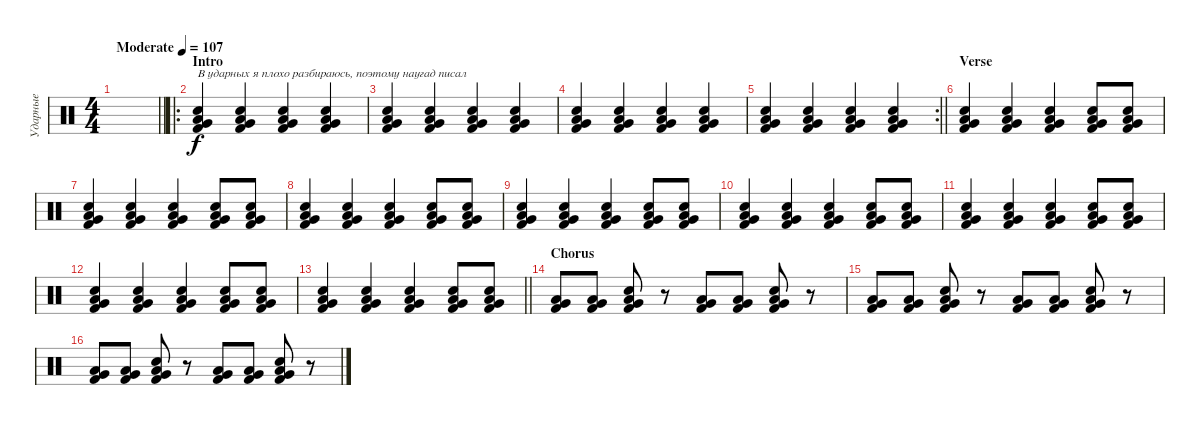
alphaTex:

\track ("Ударные" "Ударные") {instrument percussion}
\staff {score}
\articulation defaults
\ts (4 4)
\tempo (107 "Moderate")
\clef neutral
\barLineRight lightlight
\ks c
|
\ro
\section ("" "Intro")
("Snare (hit) 2" "Low Tom (hit)" "Very Low Tom (hit)" "Kick (hit) 2").4{txt "В ударных я плохо разбираюсь, поэтому наугад писал"} ("Snare (hit) 2" "Low Tom (hit)" "Very Low Tom (hit)" "Kick (hit) 2").4 ("Snare (hit) 2" "Low Tom (hit)" "Very Low Tom (hit)" "Kick (hit) 2").4 ("Snare (hit) 2" "Low Tom (hit)" "Very Low Tom (hit)" "Kick (hit) 2").4 |
("Snare (hit) 2" "Low Tom (hit)" "Very Low Tom (hit)" "Kick (hit) 2").4 ("Snare (hit) 2" "Low Tom (hit)" "Very Low Tom (hit)" "Kick (hit) 2").4 ("Snare (hit) 2" "Low Tom (hit)" "Very Low Tom (hit)" "Kick (hit) 2").4 ("Snare (hit) 2" "Low Tom (hit)" "Very Low Tom (hit)" "Kick (hit) 2").4 |
("Snare (hit) 2" "Low Tom (hit)" "Very Low Tom (hit)" "Kick (hit) 2").4 ("Snare (hit) 2" "Low Tom (hit)" "Very Low Tom (hit)" "Kick (hit) 2").4 ("Snare (hit) 2" "Low Tom (hit)" "Very Low Tom (hit)" "Kick (hit) 2").4 ("Snare (hit) 2" "Low Tom (hit)" "Very Low Tom (hit)" "Kick (hit) 2").4 |
\rc 2
\barLineRight lightlight
("Snare (hit) 2" "Low Tom (hit)" "Very Low Tom (hit)" "Kick (hit) 2").4 ("Snare (hit) 2" "Low Tom (hit)" "Very Low Tom (hit)" "Kick (hit) 2").4 ("Snare (hit) 2" "Low Tom (hit)" "Very Low Tom (hit)" "Kick (hit) 2").4 ("Snare (hit) 2" "Low Tom (hit)" "Very Low Tom (hit)" "Kick (hit) 2").4 |
\section ("" "Verse")
("Snare (hit) 2" "Low Tom (hit)" "Very Low Tom (hit)" "Kick (hit) 2").4 ("Snare (hit) 2" "Low Tom (hit)" "Very Low Tom (hit)" "Kick (hit) 2").4 ("Snare (hit) 2" "Low Tom (hit)" "Very Low Tom (hit)" "Kick (hit) 2").4 ("Snare (hit) 2" "Low Tom (hit)" "Very Low Tom (hit)" "Kick (hit) 2").8 ("Snare (hit) 2" "Low Tom (hit)" "Very Low Tom (hit)" "Kick (hit) 2").8 |
("Snare (hit) 2" "Low Tom (hit)" "Very Low Tom (hit)" "Kick (hit) 2").4 ("Snare (hit) 2" "Low Tom (hit)" "Very Low Tom (hit)" "Kick (hit) 2").4 ("Snare (hit) 2" "Low Tom (hit)" "Very Low Tom (hit)" "Kick (hit) 2").4 ("Snare (hit) 2" "Low Tom (hit)" "Very Low Tom (hit)" "Kick (hit) 2").8 ("Snare (hit) 2" "Low Tom (hit)" "Very Low Tom (hit)" "Kick (hit) 2").8 |
("Snare (hit) 2" "Low Tom (hit)" "Very Low Tom (hit)" "Kick (hit) 2").4 ("Snare (hit) 2" "Low Tom (hit)" "Very Low Tom (hit)" "Kick (hit) 2").4 ("Snare (hit) 2" "Low Tom (hit)" "Very Low Tom (hit)" "Kick (hit) 2").4 ("Snare (hit) 2" "Low Tom (hit)" "Very Low Tom (hit)" "Kick (hit) 2").8 ("Snare (hit) 2" "Low Tom (hit)" "Very Low Tom (hit)" "Kick (hit) 2").8 |
("Snare (hit) 2" "Low Tom (hit)" "Very Low Tom (hit)" "Kick (hit) 2").4 ("Snare (hit) 2" "Low Tom (hit)" "Very Low Tom (hit)" "Kick (hit) 2").4 ("Snare (hit) 2" "Low Tom (hit)" "Very Low Tom (hit)" "Kick (hit) 2").4 ("Snare (hit) 2" "Low Tom (hit)" "Very Low Tom (hit)" "Kick (hit) 2").8 ("Snare (hit) 2" "Low Tom (hit)" "Very Low Tom (hit)" "Kick (hit) 2").8 |
("Snare (hit) 2" "Low Tom (hit)" "Very Low Tom (hit)" "Kick (hit) 2").4 ("Snare (hit) 2" "Low Tom (hit)" "Very Low Tom (hit)" "Kick (hit) 2").4 ("Snare (hit) 2" "Low Tom (hit)" "Very Low Tom (hit)" "Kick (hit) 2").4 ("Snare (hit) 2" "Low Tom (hit)" "Very Low Tom (hit)" "Kick (hit) 2").8 ("Snare (hit) 2" "Low Tom (hit)" "Very Low Tom (hit)" "Kick (hit) 2").8 |
("Snare (hit) 2" "Low Tom (hit)" "Very Low Tom (hit)" "Kick (hit) 2").4 ("Snare (hit) 2" "Low Tom (hit)" "Very Low Tom (hit)" "Kick (hit) 2").4 ("Snare (hit) 2" "Low Tom (hit)" "Very Low Tom (hit)" "Kick (hit) 2").4 ("Snare (hit) 2" "Low Tom (hit)" "Very Low Tom (hit)" "Kick (hit) 2").8 ("Snare (hit) 2" "Low Tom (hit)" "Very Low Tom (hit)" "Kick (hit) 2").8 |
("Snare (hit) 2" "Low Tom (hit)" "Very Low Tom (hit)" "Kick (hit) 2").4 ("Snare (hit) 2" "Low Tom (hit)" "Very Low Tom (hit)" "Kick (hit) 2").4 ("Snare (hit) 2" "Low Tom (hit)" "Very Low Tom (hit)" "Kick (hit) 2").4 ("Snare (hit) 2" "Low Tom (hit)" "Very Low Tom (hit)" "Kick (hit) 2").8 ("Snare (hit) 2" "Low Tom (hit)" "Very Low Tom (hit)" "Kick (hit) 2").8 |
\barLineRight lightlight
("Snare (hit) 2" "Low Tom (hit)" "Very Low Tom (hit)" "Kick (hit) 2").4 ("Snare (hit) 2" "Low Tom (hit)" "Very Low Tom (hit)" "Kick (hit) 2").4 ("Snare (hit) 2" "Low Tom (hit)" "Very Low Tom (hit)" "Kick (hit) 2").4 ("Snare (hit) 2" "Low Tom (hit)" "Very Low Tom (hit)" "Kick (hit) 2").8 ("Snare (hit) 2" "Low Tom (hit)" "Very Low Tom (hit)" "Kick (hit) 2").8 |
\section ("" "Chorus")
("Kick (hit) 2" "Low Tom (hit)" "Very Low Tom (hit)").8 ("Kick (hit) 2" "Low Tom (hit)" "Very Low Tom (hit)").8 ("Snare (hit) 2" "Low Tom (hit)" "Very Low Tom (hit)" "Kick (hit) 2").8 r.8 ("Kick (hit) 2" "Low Tom (hit)" "Very Low Tom (hit)").8 ("Kick (hit) 2" "Low Tom (hit)" "Very Low Tom (hit)").8 ("Snare (hit) 2" "Low Tom (hit)" "Very Low Tom (hit)" "Kick (hit) 2").8 r.8 |
("Kick (hit) 2" "Low Tom (hit)" "Very Low Tom (hit)").8 ("Kick (hit) 2" "Low Tom (hit)" "Very Low Tom (hit)").8 ("Snare (hit) 2" "Low Tom (hit)" "Very Low Tom (hit)" "Kick (hit) 2").8 r.8 ("Kick (hit) 2" "Low Tom (hit)" "Very Low Tom (hit)").8 ("Kick (hit) 2" "Low Tom (hit)" "Very Low Tom (hit)").8 ("Snare (hit) 2" "Low Tom (hit)" "Very Low Tom (hit)" "Kick (hit) 2").8 r.8 |
("Kick (hit) 2" "Low Tom (hit)" "Very Low Tom (hit)").8 ("Kick (hit) 2" "Low Tom (hit)" "Very Low Tom (hit)").8 ("Snare (hit) 2" "Low Tom (hit)" "Very Low Tom (hit)" "Kick (hit) 2").8 r.8 ("Kick (hit) 2" "Low Tom (hit)" "Very Low Tom (hit)").8 ("Kick (hit) 2" "Low Tom (hit)" "Very Low Tom (hit)").8 ("Snare (hit) 2" "Low Tom (hit)" "Very Low Tom (hit)" "Kick (hit) 2").8 r.8
